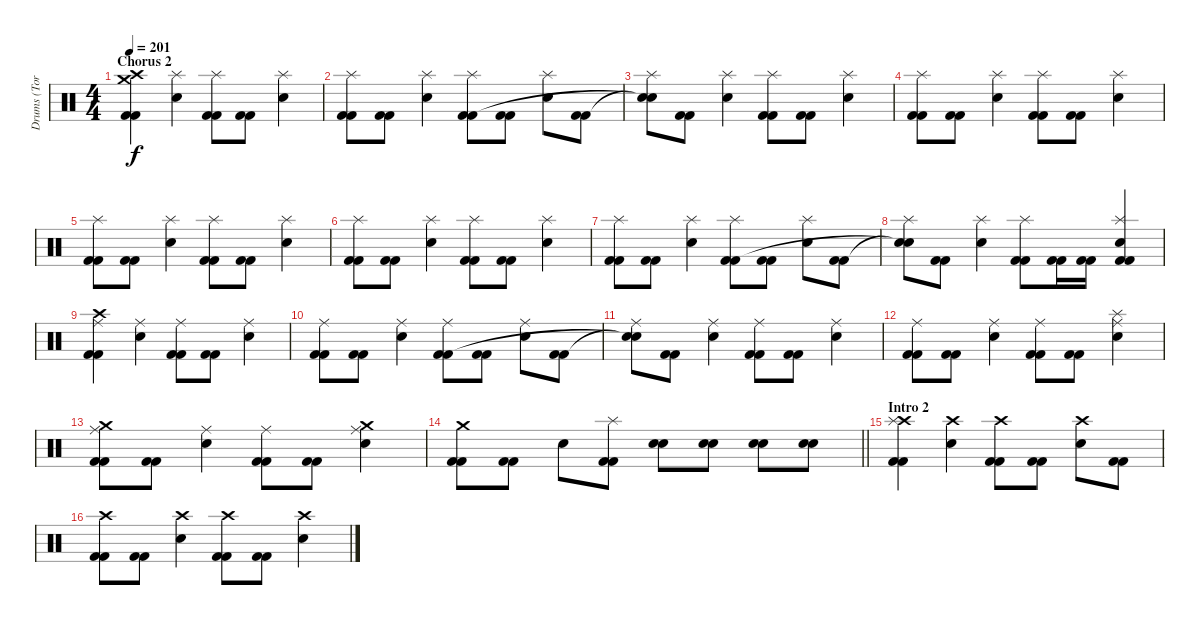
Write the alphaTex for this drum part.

\track ("Drums (Tora)" "Drums (Tor") {instrument percussion}
\staff {score}
\articulation defaults
\ts (4 4)
\section ("" "Chorus 2")
\tempo 201
\clef neutral
\ks c
("Crash high (hit)" "Crash medium (hit)" "Kick (hit) 2" "Kick (hit) 2").4{dy f} ("Splash (hit)" "Snare (hit) 2").4 ("Splash (hit)" "Kick (hit) 2" "Kick (hit) 2").8 ("Kick (hit) 2" "Kick (hit) 2").8 ("Splash (hit)" "Snare (hit) 2").4 |
("Splash (hit)" "Kick (hit) 2" "Kick (hit) 2").8 ("Kick (hit) 2" "Kick (hit) 2").8 ("Splash (hit)" "Snare (hit) 2").4 ("Splash (hit)" "Kick (hit) 2" "Kick (hit) 2").8 ("Kick (hit) 2" "Kick (hit) 2").8 ("Splash (hit)" "Snare (hit) 2").8 ("Kick (hit) 2" "Kick (hit) 2").8 |
("Splash (hit)" "Snare (hit)"{t} "Snare (hit)"{t}).8 ("Kick (hit) 2" "Kick (hit) 2").8 ("Splash (hit)" "Snare (hit) 2").4 ("Splash (hit)" "Kick (hit) 2" "Kick (hit) 2").8 ("Kick (hit) 2" "Kick (hit) 2").8 ("Splash (hit)" "Snare (hit) 2").4 |
("Splash (hit)" "Kick (hit) 2" "Kick (hit) 2").8 ("Kick (hit) 2" "Kick (hit) 2").8 ("Splash (hit)" "Snare (hit) 2").4 ("Splash (hit)" "Kick (hit) 2" "Kick (hit) 2").8 ("Kick (hit) 2" "Kick (hit) 2").8 ("Splash (hit)" "Snare (hit) 2").4 |
("Splash (hit)" "Kick (hit) 2" "Kick (hit) 2").8 ("Kick (hit) 2" "Kick (hit) 2").8 ("Splash (hit)" "Snare (hit) 2").4 ("Splash (hit)" "Kick (hit) 2" "Kick (hit) 2").8 ("Kick (hit) 2" "Kick (hit) 2").8 ("Splash (hit)" "Snare (hit) 2").4 |
("Splash (hit)" "Kick (hit) 2" "Kick (hit) 2").8 ("Kick (hit) 2" "Kick (hit) 2").8 ("Splash (hit)" "Snare (hit) 2").4 ("Splash (hit)" "Kick (hit) 2" "Kick (hit) 2").8 ("Kick (hit) 2" "Kick (hit) 2").8 ("Splash (hit)" "Snare (hit) 2").4 |
("Splash (hit)" "Kick (hit) 2" "Kick (hit) 2").8 ("Kick (hit) 2" "Kick (hit) 2").8 ("Splash (hit)" "Snare (hit) 2").4 ("Splash (hit)" "Kick (hit) 2" "Kick (hit) 2").8 ("Kick (hit) 2" "Kick (hit) 2").8 ("Splash (hit)" "Snare (hit) 2").8 ("Kick (hit) 2" "Kick (hit) 2").8 |
("Splash (hit)" "Snare (hit)"{t} "Snare (hit)"{t}).8 ("Kick (hit) 2" "Kick (hit) 2").8 ("Splash (hit)" "Snare (hit) 2").4 ("Splash (hit)" "Kick (hit) 2" "Kick (hit) 2").8 ("Kick (hit) 2" "Kick (hit) 2").16 ("Kick (hit) 2" "Kick (hit) 2").16 ("Splash (hit)" "Snare (hit) 2" "Kick (hit) 2" "Kick (hit) 2").4 |
("Crash high (hit)" "Ride (middle)" "Kick (hit) 2" "Kick (hit) 2").4 ("Ride (middle)" "Snare (hit) 2").4 ("Ride (middle)" "Kick (hit) 2" "Kick (hit) 2").8 ("Kick (hit) 2" "Kick (hit) 2").8 ("Ride (middle)" "Snare (hit) 2").4 |
("Ride (middle)" "Kick (hit) 2" "Kick (hit) 2").8 ("Kick (hit) 2" "Kick (hit) 2").8 ("Ride (middle)" "Snare (hit) 2").4 ("Ride (middle)" "Kick (hit) 2" "Kick (hit) 2").8 ("Kick (hit) 2" "Kick (hit) 2").8 ("Ride (middle)" "Snare (hit) 2").8 ("Kick (hit) 2" "Kick (hit) 2").8 |
("Ride (middle)" "Snare (hit)"{t} "Snare (hit)"{t}).8 ("Kick (hit) 2" "Kick (hit) 2").8 ("Ride (middle)" "Snare (hit) 2").4 ("Ride (middle)" "Kick (hit) 2" "Kick (hit) 2").8 ("Kick (hit) 2" "Kick (hit) 2").8 ("Ride (middle)" "Snare (hit) 2").4 |
("Ride (middle)" "Kick (hit) 2" "Kick (hit) 2").8 ("Kick (hit) 2" "Kick (hit) 2").8 ("Ride (middle)" "Snare (hit) 2").4 ("Ride (middle)" "Kick (hit) 2" "Kick (hit) 2").8 ("Kick (hit) 2" "Kick (hit) 2").8 ("Splash (hit)" "Ride (middle)" "Snare (hit) 2").4 |
("Crash medium (hit)" "Ride (middle)" "Kick (hit) 2" "Kick (hit) 2").8 ("Kick (hit) 2" "Kick (hit) 2").8 ("Ride (middle)" "Snare (hit) 2").4 ("Ride (middle)" "Kick (hit) 2" "Kick (hit) 2").8 ("Kick (hit) 2" "Kick (hit) 2").8 ("Crash medium (hit)" "Ride (middle)" "Snare (hit) 2").4 |
\barLineRight lightlight
("Crash medium (hit)" "Kick (hit) 2" "Kick (hit) 2").8 ("Kick (hit) 2" "Kick (hit) 2").8 "Snare (hit) 2".8 ("Splash (hit)" "Kick (hit) 2" "Kick (hit) 2").8 ("Snare (hit) 2" "Snare (hit) 2").8 ("Snare (hit) 2" "Snare (hit) 2").8 ("Snare (hit) 2" "Snare (hit) 2").8 ("Snare (hit) 2" "Snare (hit) 2").8 |
\section ("" "Intro 2")
("Kick (hit) 2" "Crash high (hit)" "Splash (hit)" "Kick (hit) 2").4 ("Crash high (hit)" "Snare (hit) 2").4 ("Kick (hit) 2" "Crash high (hit)" "Kick (hit) 2").8 ("Kick (hit) 2" "Kick (hit) 2").8 ("Crash high (hit)" "Snare (hit) 2").8 ("Kick (hit) 2" "Kick (hit) 2").8 |
("Crash high (hit)" "Kick (hit) 2" "Kick (hit) 2").8 ("Kick (hit) 2" "Kick (hit) 2").8 ("Crash high (hit)" "Snare (hit) 2").4 ("Crash high (hit)" "Kick (hit) 2" "Kick (hit) 2").8 ("Kick (hit) 2" "Kick (hit) 2").8 ("Crash high (hit)" "Snare (hit) 2").4
